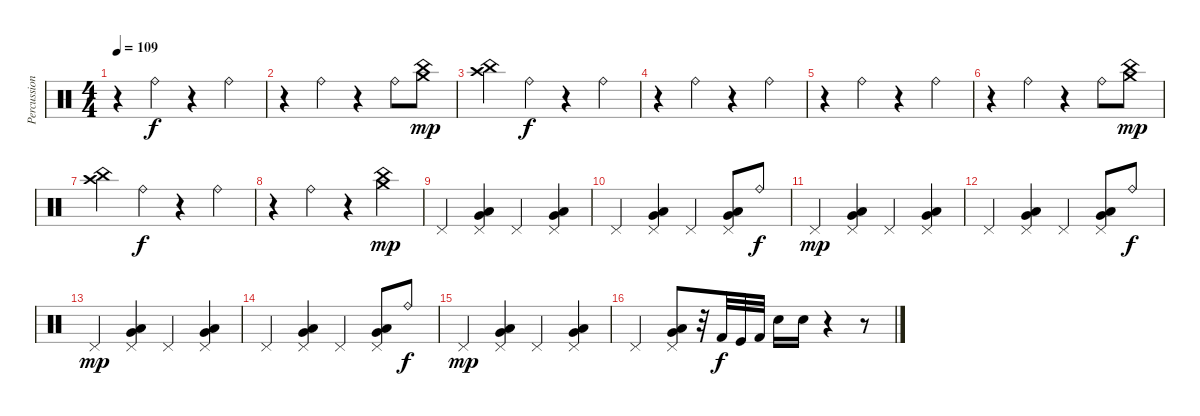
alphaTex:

\track ("Percussion" "Percussion") {instrument percussion}
\staff {score}
\articulation defaults
\ts (4 4)
\tempo 109
\clef neutral
\ks c
r.4{dy f} "Ride (bell)".4 r.4 "Ride (bell)".4 |
r.4 "Ride (bell)".4 r.4 "Ride (bell)".8 ("China (hit)" "Crash medium (hit)").8{dy mp} |
("China (hit)" "Crash high (hit)").4 "Ride (bell)".4{dy f} r.4 "Ride (bell)".4 |
r.4 "Ride (bell)".4 r.4 "Ride (bell)".4 |
r.4 "Ride (bell)".4 r.4 "Ride (bell)".4 |
r.4 "Ride (bell)".4 r.4 "Ride (bell)".8 ("China (hit)" "Crash medium (hit)").8{dy mp} |
("China (hit)" "Crash high (hit)").4 "Ride (bell)".4{dy f} r.4 "Ride (bell)".4 |
r.4 "Ride (bell)".4 r.4 ("Crash medium (hit)" "China (hit)").4{dy mp} |
"Pedal Hi-Hat (hit)".4 ("Very Low Tom (hit)" "Low Floor Tom (hit)" "Pedal Hi-Hat (hit)").4 "Pedal Hi-Hat (hit)".4 ("Very Low Tom (hit)" "Low Floor Tom (hit)" "Pedal Hi-Hat (hit)").4 |
"Pedal Hi-Hat (hit)".4 ("Very Low Tom (hit)" "Low Floor Tom (hit)" "Pedal Hi-Hat (hit)").4 "Pedal Hi-Hat (hit)".4 ("Very Low Tom (hit)" "Low Floor Tom (hit)" "Pedal Hi-Hat (hit)").8 "Ride (bell)".8{dy f} |
"Pedal Hi-Hat (hit)".4{dy mp} ("Very Low Tom (hit)" "Low Floor Tom (hit)" "Pedal Hi-Hat (hit)").4 "Pedal Hi-Hat (hit)".4 ("Very Low Tom (hit)" "Low Floor Tom (hit)" "Pedal Hi-Hat (hit)").4 |
"Pedal Hi-Hat (hit)".4 ("Very Low Tom (hit)" "Low Floor Tom (hit)" "Pedal Hi-Hat (hit)").4 "Pedal Hi-Hat (hit)".4 ("Very Low Tom (hit)" "Low Floor Tom (hit)" "Pedal Hi-Hat (hit)").8 "Ride (bell)".8{dy f} |
"Pedal Hi-Hat (hit)".4{dy mp} ("Very Low Tom (hit)" "Low Floor Tom (hit)" "Pedal Hi-Hat (hit)").4 "Pedal Hi-Hat (hit)".4 ("Very Low Tom (hit)" "Low Floor Tom (hit)" "Pedal Hi-Hat (hit)").4 |
"Pedal Hi-Hat (hit)".4 ("Very Low Tom (hit)" "Low Floor Tom (hit)" "Pedal Hi-Hat (hit)").4 "Pedal Hi-Hat (hit)".4 ("Very Low Tom (hit)" "Low Floor Tom (hit)" "Pedal Hi-Hat (hit)").8 "Ride (bell)".8{dy f} |
"Pedal Hi-Hat (hit)".4{dy mp} ("Very Low Tom (hit)" "Low Floor Tom (hit)" "Pedal Hi-Hat (hit)").4 "Pedal Hi-Hat (hit)".4 ("Very Low Tom (hit)" "Low Floor Tom (hit)" "Pedal Hi-Hat (hit)").4 |
"Pedal Hi-Hat (hit)".4 ("Very Low Tom (hit)" "Low Floor Tom (hit)" "Pedal Hi-Hat (hit)").8 r.32 "Kick (hit) 2".32{dy f} "Kick (hit)".32 "Kick (hit) 2".32 "Electric Snare (hit)".16 "Electric Snare (hit)".16 r.4 r.8
